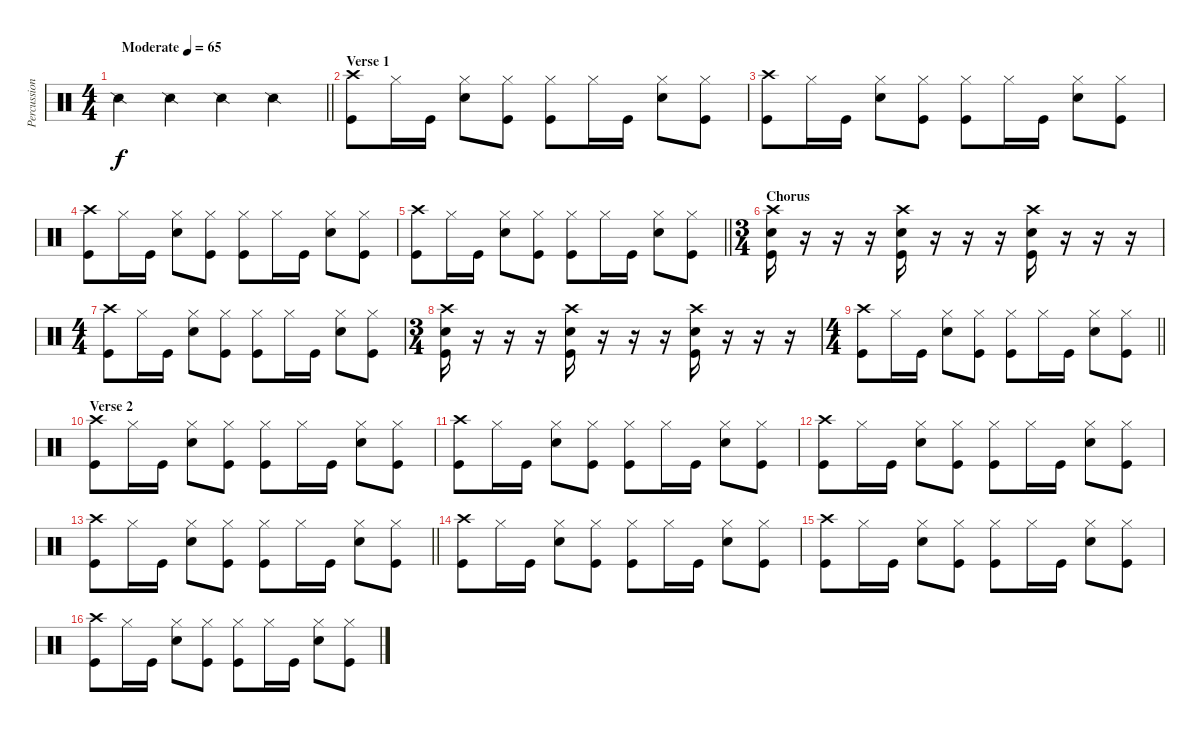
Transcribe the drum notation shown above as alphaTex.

\track ("Percussion" "Percussion") {instrument percussion}
\staff {score}
\articulation defaults
\ts (4 4)
\tempo (65 "Moderate")
\clef neutral
\barLineRight lightlight
\ks c "Snare (side stick) 2".4{dy f} "Snare (side stick) 2".4 "Snare (side stick) 2".4 "Snare (side stick) 2".4
|
\section ("" "Verse 1")
("Crash high (hit)" "Kick (hit)").8 "Hi-Hat (closed)".16 "Kick (hit)".16 ("Hi-Hat (closed)" "Snare (hit) 2").8 ("Hi-Hat (closed)" "Kick (hit)").8 ("Hi-Hat (closed)" "Kick (hit)").8 "Hi-Hat (closed)".16 "Kick (hit)".16 ("Hi-Hat (closed)" "Snare (hit) 2").8 ("Hi-Hat (closed)" "Kick (hit)").8 |
("Crash high (hit)" "Kick (hit)").8 "Hi-Hat (closed)".16 "Kick (hit)".16 ("Hi-Hat (closed)" "Snare (hit) 2").8 ("Hi-Hat (closed)" "Kick (hit)").8 ("Hi-Hat (closed)" "Kick (hit)").8 "Hi-Hat (closed)".16 "Kick (hit)".16 ("Hi-Hat (closed)" "Snare (hit) 2").8 ("Hi-Hat (closed)" "Kick (hit)").8 |
("Crash high (hit)" "Kick (hit)").8 "Hi-Hat (closed)".16 "Kick (hit)".16 ("Hi-Hat (closed)" "Snare (hit) 2").8 ("Hi-Hat (closed)" "Kick (hit)").8 ("Hi-Hat (closed)" "Kick (hit)").8 "Hi-Hat (closed)".16 "Kick (hit)".16 ("Hi-Hat (closed)" "Snare (hit) 2").8 ("Hi-Hat (closed)" "Kick (hit)").8 |
\barLineRight lightlight
("Crash high (hit)" "Kick (hit)").8 "Hi-Hat (closed)".16 "Kick (hit)".16 ("Hi-Hat (closed)" "Snare (hit) 2").8 ("Hi-Hat (closed)" "Kick (hit)").8 ("Hi-Hat (closed)" "Kick (hit)").8 "Hi-Hat (closed)".16 "Kick (hit)".16 ("Hi-Hat (closed)" "Snare (hit) 2").8 ("Hi-Hat (closed)" "Kick (hit)").8 |
\ts (3 4)
\section ("" "Chorus")
("Crash high (hit)" "Snare (hit) 2" "Kick (hit)").16 r.16 r.16 r.16 ("Crash high (hit)" "Snare (hit) 2" "Kick (hit)").16 r.16 r.16 r.16 ("Crash high (hit)" "Snare (hit) 2" "Kick (hit)").16 r.16 r.16 r.16 |
\ts (4 4)
("Crash high (hit)" "Kick (hit)").8 "Hi-Hat (closed)".16 "Kick (hit)".16 ("Hi-Hat (closed)" "Snare (hit) 2").8 ("Hi-Hat (closed)" "Kick (hit)").8 ("Hi-Hat (closed)" "Kick (hit)").8 "Hi-Hat (closed)".16 "Kick (hit)".16 ("Hi-Hat (closed)" "Snare (hit) 2").8 ("Hi-Hat (closed)" "Kick (hit)").8 |
\ts (3 4)
("Crash high (hit)" "Snare (hit) 2" "Kick (hit)").16 r.16 r.16 r.16 ("Crash high (hit)" "Snare (hit) 2" "Kick (hit)").16 r.16 r.16 r.16 ("Crash high (hit)" "Snare (hit) 2" "Kick (hit)").16 r.16 r.16 r.16 |
\ts (4 4)
\barLineRight lightlight
("Crash high (hit)" "Kick (hit)").8 "Hi-Hat (closed)".16 "Kick (hit)".16 ("Hi-Hat (closed)" "Snare (hit) 2").8 ("Hi-Hat (closed)" "Kick (hit)").8 ("Hi-Hat (closed)" "Kick (hit)").8 "Hi-Hat (closed)".16 "Kick (hit)".16 ("Hi-Hat (closed)" "Snare (hit) 2").8 ("Hi-Hat (closed)" "Kick (hit)").8 |
\section ("" "Verse 2")
("Crash high (hit)" "Kick (hit)").8 "Hi-Hat (closed)".16 "Kick (hit)".16 ("Hi-Hat (closed)" "Snare (hit) 2").8 ("Hi-Hat (closed)" "Kick (hit)").8 ("Hi-Hat (closed)" "Kick (hit)").8 "Hi-Hat (closed)".16 "Kick (hit)".16 ("Hi-Hat (closed)" "Snare (hit) 2").8 ("Hi-Hat (closed)" "Kick (hit)").8 |
("Crash high (hit)" "Kick (hit)").8 "Hi-Hat (closed)".16 "Kick (hit)".16 ("Hi-Hat (closed)" "Snare (hit) 2").8 ("Hi-Hat (closed)" "Kick (hit)").8 ("Hi-Hat (closed)" "Kick (hit)").8 "Hi-Hat (closed)".16 "Kick (hit)".16 ("Hi-Hat (closed)" "Snare (hit) 2").8 ("Hi-Hat (closed)" "Kick (hit)").8 |
("Crash high (hit)" "Kick (hit)").8 "Hi-Hat (closed)".16 "Kick (hit)".16 ("Hi-Hat (closed)" "Snare (hit) 2").8 ("Hi-Hat (closed)" "Kick (hit)").8 ("Hi-Hat (closed)" "Kick (hit)").8 "Hi-Hat (closed)".16 "Kick (hit)".16 ("Hi-Hat (closed)" "Snare (hit) 2").8 ("Hi-Hat (closed)" "Kick (hit)").8 |
\barLineRight lightlight
("Crash high (hit)" "Kick (hit)").8 "Hi-Hat (closed)".16 "Kick (hit)".16 ("Hi-Hat (closed)" "Snare (hit) 2").8 ("Hi-Hat (closed)" "Kick (hit)").8 ("Hi-Hat (closed)" "Kick (hit)").8 "Hi-Hat (closed)".16 "Kick (hit)".16 ("Hi-Hat (closed)" "Snare (hit) 2").8 ("Hi-Hat (closed)" "Kick (hit)").8 |
("Crash high (hit)" "Kick (hit)").8 "Hi-Hat (closed)".16 "Kick (hit)".16 ("Hi-Hat (closed)" "Snare (hit) 2").8 ("Hi-Hat (closed)" "Kick (hit)").8 ("Hi-Hat (closed)" "Kick (hit)").8 "Hi-Hat (closed)".16 "Kick (hit)".16 ("Hi-Hat (closed)" "Snare (hit) 2").8 ("Hi-Hat (closed)" "Kick (hit)").8 |
("Crash high (hit)" "Kick (hit)").8 "Hi-Hat (closed)".16 "Kick (hit)".16 ("Hi-Hat (closed)" "Snare (hit) 2").8 ("Hi-Hat (closed)" "Kick (hit)").8 ("Hi-Hat (closed)" "Kick (hit)").8 "Hi-Hat (closed)".16 "Kick (hit)".16 ("Hi-Hat (closed)" "Snare (hit) 2").8 ("Hi-Hat (closed)" "Kick (hit)").8 |
("Crash high (hit)" "Kick (hit)").8 "Hi-Hat (closed)".16 "Kick (hit)".16 ("Hi-Hat (closed)" "Snare (hit) 2").8 ("Hi-Hat (closed)" "Kick (hit)").8 ("Hi-Hat (closed)" "Kick (hit)").8 "Hi-Hat (closed)".16 "Kick (hit)".16 ("Hi-Hat (closed)" "Snare (hit) 2").8 ("Hi-Hat (closed)" "Kick (hit)").8
